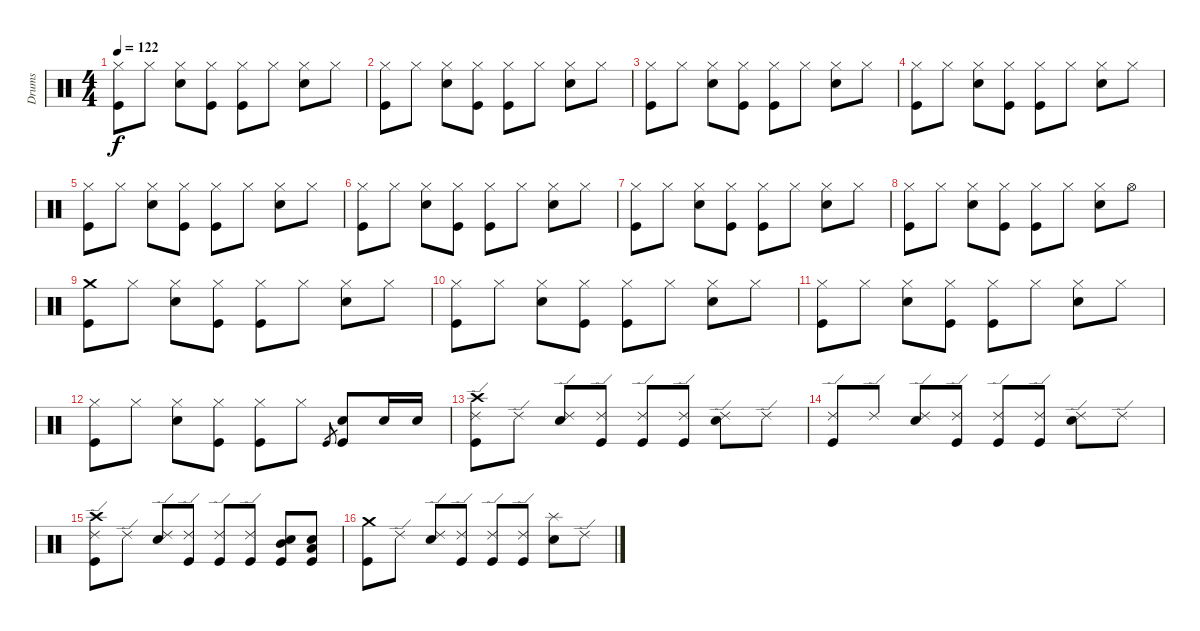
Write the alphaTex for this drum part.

\track ("Drums" "Drums") {instrument percussion}
\staff {score}
\articulation defaults
\ts (4 4)
\tempo 122
\clef neutral
\ks c
("Hi-Hat (closed)" "Kick (hit)").8{dy f} "Hi-Hat (closed)".8 ("Hi-Hat (closed)" "Snare (hit) 2").8 ("Hi-Hat (closed)" "Kick (hit)").8 ("Hi-Hat (closed)" "Kick (hit)").8 "Hi-Hat (closed)".8 ("Hi-Hat (closed)" "Snare (hit) 2").8 "Hi-Hat (closed)".8 |
("Hi-Hat (closed)" "Kick (hit)").8 "Hi-Hat (closed)".8 ("Hi-Hat (closed)" "Snare (hit) 2").8 ("Hi-Hat (closed)" "Kick (hit)").8 ("Hi-Hat (closed)" "Kick (hit)").8 "Hi-Hat (closed)".8 ("Hi-Hat (closed)" "Snare (hit) 2").8 "Hi-Hat (closed)".8 |
("Hi-Hat (closed)" "Kick (hit)").8 "Hi-Hat (closed)".8 ("Hi-Hat (closed)" "Snare (hit) 2").8 ("Hi-Hat (closed)" "Kick (hit)").8 ("Hi-Hat (closed)" "Kick (hit)").8 "Hi-Hat (closed)".8 ("Hi-Hat (closed)" "Snare (hit) 2").8 "Hi-Hat (closed)".8 |
("Hi-Hat (closed)" "Kick (hit)").8 "Hi-Hat (closed)".8 ("Hi-Hat (closed)" "Snare (hit) 2").8 ("Hi-Hat (closed)" "Kick (hit)").8 ("Hi-Hat (closed)" "Kick (hit)").8 "Hi-Hat (closed)".8 ("Hi-Hat (closed)" "Snare (hit) 2").8 "Hi-Hat (closed)".8 |
("Hi-Hat (closed)" "Kick (hit)").8 "Hi-Hat (closed)".8 ("Hi-Hat (closed)" "Snare (hit) 2").8 ("Hi-Hat (closed)" "Kick (hit)").8 ("Hi-Hat (closed)" "Kick (hit)").8 "Hi-Hat (closed)".8 ("Hi-Hat (closed)" "Snare (hit) 2").8 "Hi-Hat (closed)".8 |
("Hi-Hat (closed)" "Kick (hit)").8 "Hi-Hat (closed)".8 ("Hi-Hat (closed)" "Snare (hit) 2").8 ("Hi-Hat (closed)" "Kick (hit)").8 ("Hi-Hat (closed)" "Kick (hit)").8 "Hi-Hat (closed)".8 ("Hi-Hat (closed)" "Snare (hit) 2").8 "Hi-Hat (closed)".8 |
("Hi-Hat (closed)" "Kick (hit)").8 "Hi-Hat (closed)".8 ("Hi-Hat (closed)" "Snare (hit) 2").8 ("Hi-Hat (closed)" "Kick (hit)").8 ("Hi-Hat (closed)" "Kick (hit)").8 "Hi-Hat (closed)".8 ("Hi-Hat (closed)" "Snare (hit) 2").8 "Hi-Hat (closed)".8 |
("Hi-Hat (closed)" "Kick (hit)").8 "Hi-Hat (closed)".8 ("Hi-Hat (closed)" "Snare (hit) 2").8 ("Hi-Hat (closed)" "Kick (hit)").8 ("Hi-Hat (closed)" "Kick (hit)").8 "Hi-Hat (closed)".8 ("Hi-Hat (closed)" "Snare (hit) 2").8 "Hi-Hat (open)".8 |
("Crash medium (hit)" "Kick (hit)").8 "Hi-Hat (closed)".8 ("Hi-Hat (closed)" "Snare (hit) 2").8 ("Hi-Hat (closed)" "Kick (hit)").8 ("Hi-Hat (closed)" "Kick (hit)").8 "Hi-Hat (closed)".8 ("Hi-Hat (closed)" "Snare (hit) 2").8 "Hi-Hat (closed)".8 |
("Hi-Hat (closed)" "Kick (hit)").8 "Hi-Hat (closed)".8 ("Hi-Hat (closed)" "Snare (hit) 2").8 ("Hi-Hat (closed)" "Kick (hit)").8 ("Hi-Hat (closed)" "Kick (hit)").8 "Hi-Hat (closed)".8 ("Hi-Hat (closed)" "Snare (hit) 2").8 "Hi-Hat (closed)".8 |
("Hi-Hat (closed)" "Kick (hit)").8 "Hi-Hat (closed)".8 ("Hi-Hat (closed)" "Snare (hit) 2").8 ("Hi-Hat (closed)" "Kick (hit)").8 ("Hi-Hat (closed)" "Kick (hit)").8 "Hi-Hat (closed)".8 ("Hi-Hat (closed)" "Snare (hit) 2").8 "Hi-Hat (closed)".8 |
("Hi-Hat (closed)" "Kick (hit)").8 "Hi-Hat (closed)".8 ("Hi-Hat (closed)" "Snare (hit) 2").8 ("Hi-Hat (closed)" "Kick (hit)").8 ("Hi-Hat (closed)" "Kick (hit)").8 "Hi-Hat (closed)".8 "Kick (hit)".8{gr} ("Snare (hit) 2" "Kick (hit)").8 "Snare (hit) 2".16 "Snare (hit) 2".16 |
("Ride (edge) 2" "Crash high (hit)" "Kick (hit)").8 "Ride (edge) 2".8 ("Ride (edge) 2" "Snare (hit) 2").8 ("Ride (edge) 2" "Kick (hit)").8 ("Ride (edge) 2" "Kick (hit)").8 ("Ride (edge) 2" "Kick (hit)").8 ("Ride (edge) 2" "Snare (hit) 2").8 "Ride (edge) 2".8 |
("Ride (edge) 2" "Kick (hit)").8 "Ride (edge) 2".8 ("Ride (edge) 2" "Snare (hit) 2").8 ("Ride (edge) 2" "Kick (hit)").8 ("Ride (edge) 2" "Kick (hit)").8 ("Ride (edge) 2" "Kick (hit)").8 ("Ride (edge) 2" "Snare (hit) 2").8 "Ride (edge) 2".8 |
("Ride (edge) 2" "Crash high (hit)" "Kick (hit)").8 "Ride (edge) 2".8 ("Ride (edge) 2" "Snare (hit) 2").8 ("Ride (edge) 2" "Kick (hit)").8 ("Ride (edge) 2" "Kick (hit)").8 ("Ride (edge) 2" "Kick (hit)").8 ("Mid Tom (hit)" "Snare (hit) 2" "Kick (hit)").8 ("Low Floor Tom (hit)" "Snare (hit) 2" "Kick (hit)").8 |
("Crash medium (hit)" "Kick (hit)").8 "Ride (edge) 2".8 ("Ride (edge) 2" "Snare (hit) 2").8 ("Ride (edge) 2" "Kick (hit)").8 ("Ride (edge) 2" "Kick (hit)").8 ("Ride (edge) 2" "Kick (hit)").8 ("Splash (hit)" "Snare (hit) 2").8 "Ride (edge) 2".8
